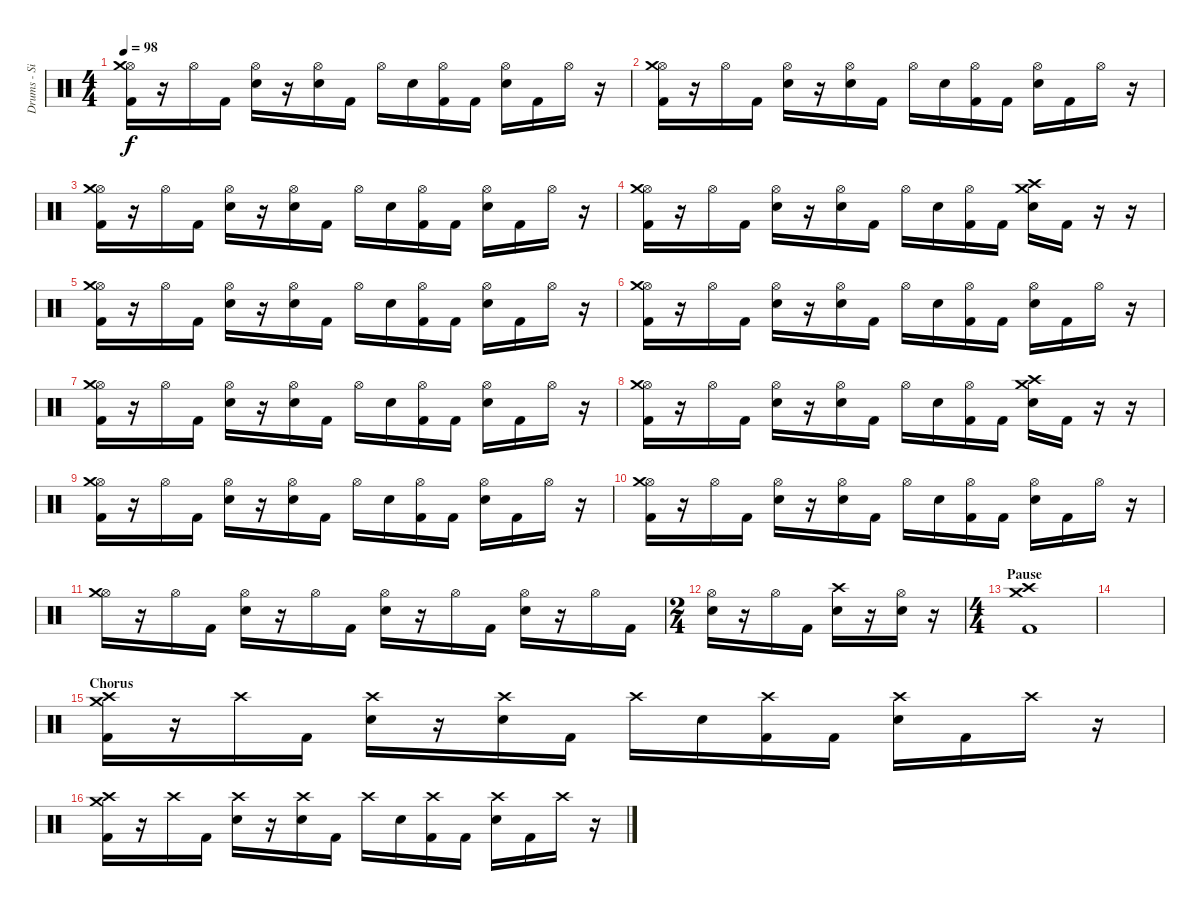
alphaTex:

\track ("Drums - Si" "Drums - Si") {instrument percussion}
\staff {score}
\articulation defaults
\ts (4 4)
\tempo 98
\clef neutral
\ks c
("Hi-Hat (open)" "Crash medium (hit)" "Kick (hit) 2").16{dy f} r.16 "Hi-Hat (open)".16 "Kick (hit) 2".16 ("Hi-Hat (open)" "Snare (hit) 2").16 r.16 ("Hi-Hat (open)" "Snare (hit) 2").16 "Kick (hit) 2".16 "Hi-Hat (open)".16 "Snare (hit) 2".16 ("Hi-Hat (open)" "Kick (hit) 2").16 "Kick (hit) 2".16 ("Hi-Hat (open)" "Snare (hit) 2").16 "Kick (hit) 2".16 "Hi-Hat (open)".16 r.16 |
("Hi-Hat (open)" "Crash medium (hit)" "Kick (hit) 2").16 r.16 "Hi-Hat (open)".16 "Kick (hit) 2".16 ("Hi-Hat (open)" "Snare (hit) 2").16 r.16 ("Hi-Hat (open)" "Snare (hit) 2").16 "Kick (hit) 2".16 "Hi-Hat (open)".16 "Snare (hit) 2".16 ("Hi-Hat (open)" "Kick (hit) 2").16 "Kick (hit) 2".16 ("Hi-Hat (open)" "Snare (hit) 2").16 "Kick (hit) 2".16 "Hi-Hat (open)".16 r.16 |
("Hi-Hat (open)" "Crash medium (hit)" "Kick (hit) 2").16 r.16 "Hi-Hat (open)".16 "Kick (hit) 2".16 ("Hi-Hat (open)" "Snare (hit) 2").16 r.16 ("Hi-Hat (open)" "Snare (hit) 2").16 "Kick (hit) 2".16 "Hi-Hat (open)".16 "Snare (hit) 2".16 ("Hi-Hat (open)" "Kick (hit) 2").16 "Kick (hit) 2".16 ("Hi-Hat (open)" "Snare (hit) 2").16 "Kick (hit) 2".16 "Hi-Hat (open)".16 r.16 |
("Hi-Hat (open)" "Crash medium (hit)" "Kick (hit) 2").16 r.16 "Hi-Hat (open)".16 "Kick (hit) 2".16 ("Hi-Hat (open)" "Snare (hit) 2").16 r.16 ("Hi-Hat (open)" "Snare (hit) 2").16 "Kick (hit) 2".16 "Hi-Hat (open)".16 "Snare (hit) 2".16 ("Hi-Hat (open)" "Kick (hit) 2").16 "Kick (hit) 2".16 ("Crash high (hit)" "Crash medium (hit)" "Snare (hit) 2").16 "Kick (hit) 2".16 r.16 r.16 |
("Hi-Hat (open)" "Crash medium (hit)" "Kick (hit) 2").16 r.16 "Hi-Hat (open)".16 "Kick (hit) 2".16 ("Hi-Hat (open)" "Snare (hit) 2").16 r.16 ("Hi-Hat (open)" "Snare (hit) 2").16 "Kick (hit) 2".16 "Hi-Hat (open)".16 "Snare (hit) 2".16 ("Hi-Hat (open)" "Kick (hit) 2").16 "Kick (hit) 2".16 ("Hi-Hat (open)" "Snare (hit) 2").16 "Kick (hit) 2".16 "Hi-Hat (open)".16 r.16 |
("Hi-Hat (open)" "Crash medium (hit)" "Kick (hit) 2").16 r.16 "Hi-Hat (open)".16 "Kick (hit) 2".16 ("Hi-Hat (open)" "Snare (hit) 2").16 r.16 ("Hi-Hat (open)" "Snare (hit) 2").16 "Kick (hit) 2".16 "Hi-Hat (open)".16 "Snare (hit) 2".16 ("Hi-Hat (open)" "Kick (hit) 2").16 "Kick (hit) 2".16 ("Hi-Hat (open)" "Snare (hit) 2").16 "Kick (hit) 2".16 "Hi-Hat (open)".16 r.16 |
("Hi-Hat (open)" "Crash medium (hit)" "Kick (hit) 2").16 r.16 "Hi-Hat (open)".16 "Kick (hit) 2".16 ("Hi-Hat (open)" "Snare (hit) 2").16 r.16 ("Hi-Hat (open)" "Snare (hit) 2").16 "Kick (hit) 2".16 "Hi-Hat (open)".16 "Snare (hit) 2".16 ("Hi-Hat (open)" "Kick (hit) 2").16 "Kick (hit) 2".16 ("Hi-Hat (open)" "Snare (hit) 2").16 "Kick (hit) 2".16 "Hi-Hat (open)".16 r.16 |
("Hi-Hat (open)" "Crash medium (hit)" "Kick (hit) 2").16 r.16 "Hi-Hat (open)".16 "Kick (hit) 2".16 ("Hi-Hat (open)" "Snare (hit) 2").16 r.16 ("Hi-Hat (open)" "Snare (hit) 2").16 "Kick (hit) 2".16 "Hi-Hat (open)".16 "Snare (hit) 2".16 ("Hi-Hat (open)" "Kick (hit) 2").16 "Kick (hit) 2".16 ("Crash high (hit)" "Crash medium (hit)" "Snare (hit) 2").16 "Kick (hit) 2".16 r.16 r.16 |
("Hi-Hat (open)" "Crash medium (hit)" "Kick (hit) 2").16 r.16 "Hi-Hat (open)".16 "Kick (hit) 2".16 ("Hi-Hat (open)" "Snare (hit) 2").16 r.16 ("Hi-Hat (open)" "Snare (hit) 2").16 "Kick (hit) 2".16 "Hi-Hat (open)".16 "Snare (hit) 2".16 ("Hi-Hat (open)" "Kick (hit) 2").16 "Kick (hit) 2".16 ("Hi-Hat (open)" "Snare (hit) 2").16 "Kick (hit) 2".16 "Hi-Hat (open)".16 r.16 |
("Hi-Hat (open)" "Crash medium (hit)" "Kick (hit) 2").16 r.16 "Hi-Hat (open)".16 "Kick (hit) 2".16 ("Hi-Hat (open)" "Snare (hit) 2").16 r.16 ("Hi-Hat (open)" "Snare (hit) 2").16 "Kick (hit) 2".16 "Hi-Hat (open)".16 "Snare (hit) 2".16 ("Hi-Hat (open)" "Kick (hit) 2").16 "Kick (hit) 2".16 ("Hi-Hat (open)" "Snare (hit) 2").16 "Kick (hit) 2".16 "Hi-Hat (open)".16 r.16 |
("Hi-Hat (open)" "Crash medium (hit)").16 r.16 "Hi-Hat (open)".16 "Kick (hit) 2".16 ("Hi-Hat (open)" "Snare (hit) 2").16 r.16 "Hi-Hat (open)".16 "Kick (hit) 2".16 ("Hi-Hat (open)" "Snare (hit) 2").16 r.16 "Hi-Hat (open)".16 "Kick (hit) 2".16 ("Hi-Hat (open)" "Snare (hit) 2").16 r.16 "Hi-Hat (open)".16 "Kick (hit) 2".16 |
\ts (2 4)
("Hi-Hat (open)" "Snare (hit) 2").16 r.16 "Hi-Hat (open)".16 "Kick (hit) 2".16 ("Crash high (hit)" "Snare (hit) 2").16 r.16 ("Hi-Hat (open)" "Snare (hit) 2").16 r.16 |
\ts (4 4)
\section ("" "Pause")
("Crash high (hit)" "Crash medium (hit)" "Kick (hit) 2").1 |
|
\section ("" "Chorus")
("Crash high (hit)" "Crash medium (hit)" "Kick (hit) 2").16 r.16 "Crash high (hit)".16 "Kick (hit) 2".16 ("Crash high (hit)" "Snare (hit) 2").16 r.16 ("Crash high (hit)" "Snare (hit) 2").16 "Kick (hit) 2".16 "Crash high (hit)".16 "Snare (hit) 2".16 ("Crash high (hit)" "Kick (hit) 2").16 "Kick (hit) 2".16 ("Crash high (hit)" "Snare (hit) 2").16 "Kick (hit) 2".16 "Crash high (hit)".16 r.16 |
("Crash high (hit)" "Crash medium (hit)" "Kick (hit) 2").16 r.16 "Crash high (hit)".16 "Kick (hit) 2".16 ("Crash high (hit)" "Snare (hit) 2").16 r.16 ("Crash high (hit)" "Snare (hit) 2").16 "Kick (hit) 2".16 "Crash high (hit)".16 "Snare (hit) 2".16 ("Crash high (hit)" "Kick (hit) 2").16 "Kick (hit) 2".16 ("Crash high (hit)" "Snare (hit) 2").16 "Kick (hit) 2".16 "Crash high (hit)".16 r.16
